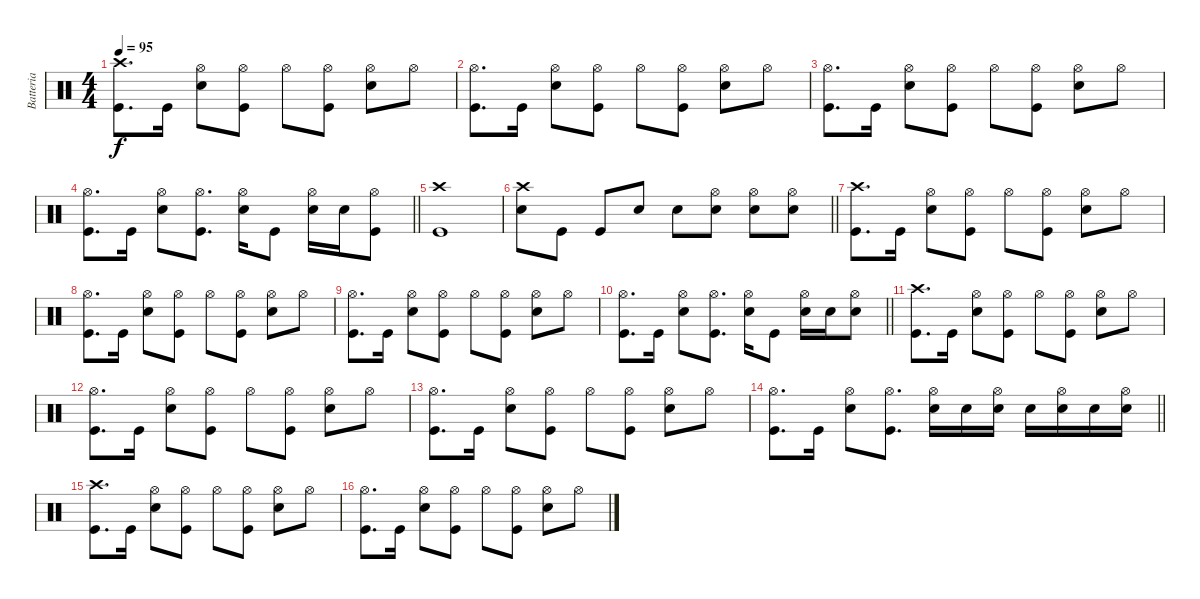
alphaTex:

\track ("Batteria" "Batteria") {instrument percussion}
\staff {score}
\articulation defaults
\ts (4 4)
\tempo 95
\clef neutral
\ks c
("Kick (hit)" "Crash high (hit)").8{d dy f} "Kick (hit)".16 ("Snare (hit) 2" "Hi-Hat (open)").8 ("Kick (hit)" "Hi-Hat (open)").8 "Hi-Hat (open)".8 ("Kick (hit)" "Hi-Hat (open)").8 ("Snare (hit) 2" "Hi-Hat (open)").8 "Hi-Hat (open)".8 |
("Kick (hit)" "Hi-Hat (open)").8{d} "Kick (hit)".16 ("Snare (hit) 2" "Hi-Hat (open)").8 ("Kick (hit)" "Hi-Hat (open)").8 "Hi-Hat (open)".8 ("Kick (hit)" "Hi-Hat (open)").8 ("Snare (hit) 2" "Hi-Hat (open)").8 "Hi-Hat (open)".8 |
("Kick (hit)" "Hi-Hat (open)").8{d} "Kick (hit)".16 ("Snare (hit) 2" "Hi-Hat (open)").8 ("Kick (hit)" "Hi-Hat (open)").8 "Hi-Hat (open)".8 ("Kick (hit)" "Hi-Hat (open)").8 ("Snare (hit) 2" "Hi-Hat (open)").8 "Hi-Hat (open)".8 |
\barLineRight lightlight
("Kick (hit)" "Hi-Hat (open)").8{d} "Kick (hit)".16 ("Snare (hit) 2" "Hi-Hat (open)").8 ("Kick (hit)" "Hi-Hat (open)").8{d} ("Snare (hit) 2" "Hi-Hat (open)").16 "Kick (hit)".8 ("Snare (hit) 2" "Hi-Hat (open)").16 "Snare (hit) 2".16 ("Kick (hit)" "Hi-Hat (open)").8 |
("Kick (hit)" "Crash high (hit)").1 |
\barLineRight lightlight
("Crash high (hit)" "Snare (hit) 2").8 "Kick (hit)".8 "Kick (hit)".8 "Snare (hit) 2".8 "Snare (hit) 2".8 ("Snare (hit) 2" "Hi-Hat (open)").8 ("Snare (hit) 2" "Hi-Hat (open)").8 ("Snare (hit) 2" "Hi-Hat (open)").8 |
("Kick (hit)" "Crash high (hit)").8{d} "Kick (hit)".16 ("Snare (hit) 2" "Hi-Hat (open)").8 ("Kick (hit)" "Hi-Hat (open)").8 "Hi-Hat (open)".8 ("Kick (hit)" "Hi-Hat (open)").8 ("Snare (hit) 2" "Hi-Hat (open)").8 "Hi-Hat (open)".8 |
("Kick (hit)" "Hi-Hat (open)").8{d} "Kick (hit)".16 ("Snare (hit) 2" "Hi-Hat (open)").8 ("Kick (hit)" "Hi-Hat (open)").8 "Hi-Hat (open)".8 ("Kick (hit)" "Hi-Hat (open)").8 ("Snare (hit) 2" "Hi-Hat (open)").8 "Hi-Hat (open)".8 |
("Kick (hit)" "Hi-Hat (open)").8{d} "Kick (hit)".16 ("Snare (hit) 2" "Hi-Hat (open)").8 ("Kick (hit)" "Hi-Hat (open)").8 "Hi-Hat (open)".8 ("Kick (hit)" "Hi-Hat (open)").8 ("Snare (hit) 2" "Hi-Hat (open)").8 "Hi-Hat (open)".8 |
\barLineRight lightlight
("Kick (hit)" "Hi-Hat (open)").8{d} "Kick (hit)".16 ("Snare (hit) 2" "Hi-Hat (open)").8 ("Kick (hit)" "Hi-Hat (open)").8{d} ("Snare (hit) 2" "Hi-Hat (open)").16 "Kick (hit)".8 ("Snare (hit) 2" "Hi-Hat (open)").16 "Snare (hit) 2".16 ("Snare (hit) 2" "Hi-Hat (open)").8 |
("Kick (hit)" "Crash high (hit)").8{d} "Kick (hit)".16 ("Snare (hit) 2" "Hi-Hat (open)").8 ("Kick (hit)" "Hi-Hat (open)").8 "Hi-Hat (open)".8 ("Kick (hit)" "Hi-Hat (open)").8 ("Snare (hit) 2" "Hi-Hat (open)").8 "Hi-Hat (open)".8 |
("Kick (hit)" "Hi-Hat (open)").8{d} "Kick (hit)".16 ("Snare (hit) 2" "Hi-Hat (open)").8 ("Kick (hit)" "Hi-Hat (open)").8 "Hi-Hat (open)".8 ("Kick (hit)" "Hi-Hat (open)").8 ("Snare (hit) 2" "Hi-Hat (open)").8 "Hi-Hat (open)".8 |
("Kick (hit)" "Hi-Hat (open)").8{d} "Kick (hit)".16 ("Snare (hit) 2" "Hi-Hat (open)").8 ("Kick (hit)" "Hi-Hat (open)").8 "Hi-Hat (open)".8 ("Kick (hit)" "Hi-Hat (open)").8 ("Snare (hit) 2" "Hi-Hat (open)").8 "Hi-Hat (open)".8 |
\barLineRight lightlight
("Kick (hit)" "Hi-Hat (open)").8{d} "Kick (hit)".16 ("Snare (hit) 2" "Hi-Hat (open)").8 ("Kick (hit)" "Hi-Hat (open)").8{d} ("Snare (hit) 2" "Hi-Hat (open)").16 "Snare (hit) 2".16 ("Snare (hit) 2" "Hi-Hat (open)").16 "Snare (hit) 2".16 ("Snare (hit) 2" "Hi-Hat (open)").16 "Snare (hit) 2".16 ("Snare (hit) 2" "Hi-Hat (open)").16 |
("Kick (hit)" "Crash high (hit)").8{d} "Kick (hit)".16 ("Snare (hit) 2" "Hi-Hat (open)").8 ("Kick (hit)" "Hi-Hat (open)").8 "Hi-Hat (open)".8 ("Kick (hit)" "Hi-Hat (open)").8 ("Snare (hit) 2" "Hi-Hat (open)").8 "Hi-Hat (open)".8 |
("Kick (hit)" "Hi-Hat (open)").8{d} "Kick (hit)".16 ("Snare (hit) 2" "Hi-Hat (open)").8 ("Kick (hit)" "Hi-Hat (open)").8 "Hi-Hat (open)".8 ("Kick (hit)" "Hi-Hat (open)").8 ("Snare (hit) 2" "Hi-Hat (open)").8 "Hi-Hat (open)".8
